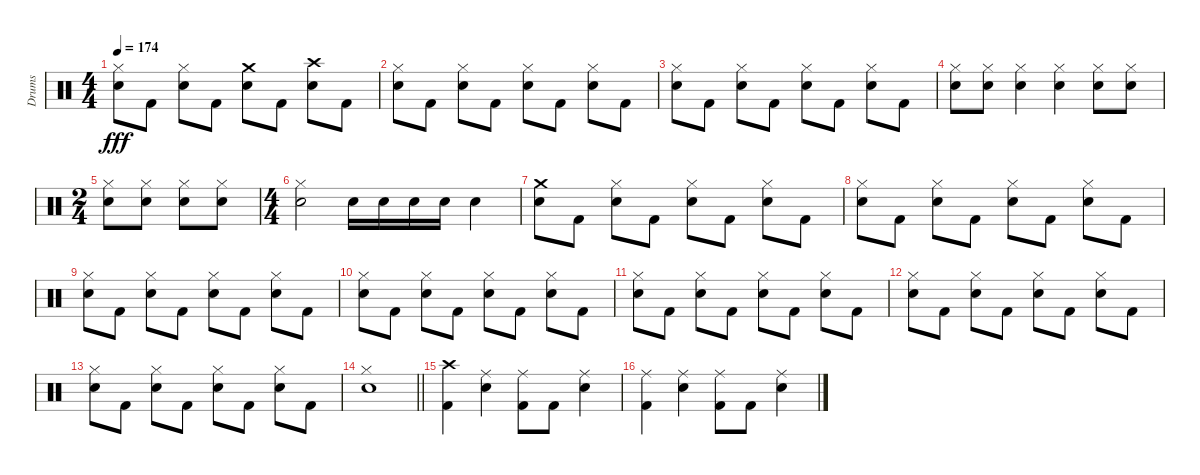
\track ("Drums" "Drums") {instrument percussion}
\staff {score}
\articulation defaults
\ts (4 4)
\tempo 174
\clef neutral
\ks c
("Hi-Hat (closed)" "Electric Snare (hit)").8{dy fff} "Kick (hit) 2".8 ("Hi-Hat (closed)" "Electric Snare (hit)").8 "Kick (hit) 2".8 ("Crash medium (hit)" "Electric Snare (hit)").8 "Kick (hit) 2".8 ("Crash high (hit)" "Electric Snare (hit)").8 "Kick (hit) 2".8 |
("Hi-Hat (closed)" "Electric Snare (hit)").8 "Kick (hit) 2".8 ("Hi-Hat (closed)" "Electric Snare (hit)").8 "Kick (hit) 2".8 ("Hi-Hat (closed)" "Electric Snare (hit)").8 "Kick (hit) 2".8 ("Hi-Hat (closed)" "Electric Snare (hit)").8 "Kick (hit) 2".8 |
("Hi-Hat (closed)" "Electric Snare (hit)").8 "Kick (hit) 2".8 ("Hi-Hat (closed)" "Electric Snare (hit)").8 "Kick (hit) 2".8 ("Hi-Hat (closed)" "Electric Snare (hit)").8 "Kick (hit) 2".8 ("Hi-Hat (closed)" "Electric Snare (hit)").8 "Kick (hit) 2".8 |
("Hi-Hat (closed)" "Electric Snare (hit)").8 ("Hi-Hat (closed)" "Electric Snare (hit)").8 ("Hi-Hat (closed)" "Electric Snare (hit)").4 ("Hi-Hat (closed)" "Electric Snare (hit)").4 ("Hi-Hat (closed)" "Electric Snare (hit)").8 ("Hi-Hat (closed)" "Electric Snare (hit)").8 |
\ts (2 4)
("Hi-Hat (closed)" "Electric Snare (hit)").8 ("Hi-Hat (closed)" "Electric Snare (hit)").8 ("Hi-Hat (closed)" "Electric Snare (hit)").8 ("Hi-Hat (closed)" "Electric Snare (hit)").8 |
\ts (4 4)
("Hi-Hat (closed)" "Electric Snare (hit)").2 "Electric Snare (hit)".16 "Electric Snare (hit)".16 "Electric Snare (hit)".16 "Electric Snare (hit)".16 "Electric Snare (hit)".4 |
("Crash medium (hit)" "Electric Snare (hit)").8 "Kick (hit) 2".8 ("Hi-Hat (closed)" "Electric Snare (hit)").8 "Kick (hit) 2".8 ("Hi-Hat (closed)" "Electric Snare (hit)").8 "Kick (hit) 2".8 ("Hi-Hat (closed)" "Electric Snare (hit)").8 "Kick (hit) 2".8 |
("Hi-Hat (closed)" "Electric Snare (hit)").8 "Kick (hit) 2".8 ("Hi-Hat (closed)" "Electric Snare (hit)").8 "Kick (hit) 2".8 ("Hi-Hat (closed)" "Electric Snare (hit)").8 "Kick (hit) 2".8 ("Hi-Hat (closed)" "Electric Snare (hit)").8 "Kick (hit) 2".8 |
("Hi-Hat (closed)" "Electric Snare (hit)").8 "Kick (hit) 2".8 ("Hi-Hat (closed)" "Electric Snare (hit)").8 "Kick (hit) 2".8 ("Hi-Hat (closed)" "Electric Snare (hit)").8 "Kick (hit) 2".8 ("Hi-Hat (closed)" "Electric Snare (hit)").8 "Kick (hit) 2".8 |
("Hi-Hat (closed)" "Electric Snare (hit)").8 "Kick (hit) 2".8 ("Hi-Hat (closed)" "Electric Snare (hit)").8 "Kick (hit) 2".8 ("Hi-Hat (closed)" "Electric Snare (hit)").8 "Kick (hit) 2".8 ("Hi-Hat (closed)" "Electric Snare (hit)").8 "Kick (hit) 2".8 |
("Hi-Hat (closed)" "Electric Snare (hit)").8 "Kick (hit) 2".8 ("Hi-Hat (closed)" "Electric Snare (hit)").8 "Kick (hit) 2".8 ("Hi-Hat (closed)" "Electric Snare (hit)").8 "Kick (hit) 2".8 ("Hi-Hat (closed)" "Electric Snare (hit)").8 "Kick (hit) 2".8 |
("Hi-Hat (closed)" "Electric Snare (hit)").8 "Kick (hit) 2".8 ("Hi-Hat (closed)" "Electric Snare (hit)").8 "Kick (hit) 2".8 ("Hi-Hat (closed)" "Electric Snare (hit)").8 "Kick (hit) 2".8 ("Hi-Hat (closed)" "Electric Snare (hit)").8 "Kick (hit) 2".8 |
("Hi-Hat (closed)" "Electric Snare (hit)").8 "Kick (hit) 2".8 ("Hi-Hat (closed)" "Electric Snare (hit)").8 "Kick (hit) 2".8 ("Hi-Hat (closed)" "Electric Snare (hit)").8 "Kick (hit) 2".8 ("Hi-Hat (closed)" "Electric Snare (hit)").8 "Kick (hit) 2".8 |
\barLineRight lightlight
("Hi-Hat (closed)" "Electric Snare (hit)").1 |
("Crash high (hit)" "Kick (hit) 2").4 ("Ride (middle)" "Electric Snare (hit)").4 ("Ride (middle)" "Kick (hit) 2").8 "Kick (hit) 2".8 ("Ride (middle)" "Electric Snare (hit)").4 |
("Ride (middle)" "Kick (hit) 2").4 ("Ride (middle)" "Electric Snare (hit)").4 ("Ride (middle)" "Kick (hit) 2").8 "Kick (hit) 2".8 ("Ride (middle)" "Electric Snare (hit)").4
